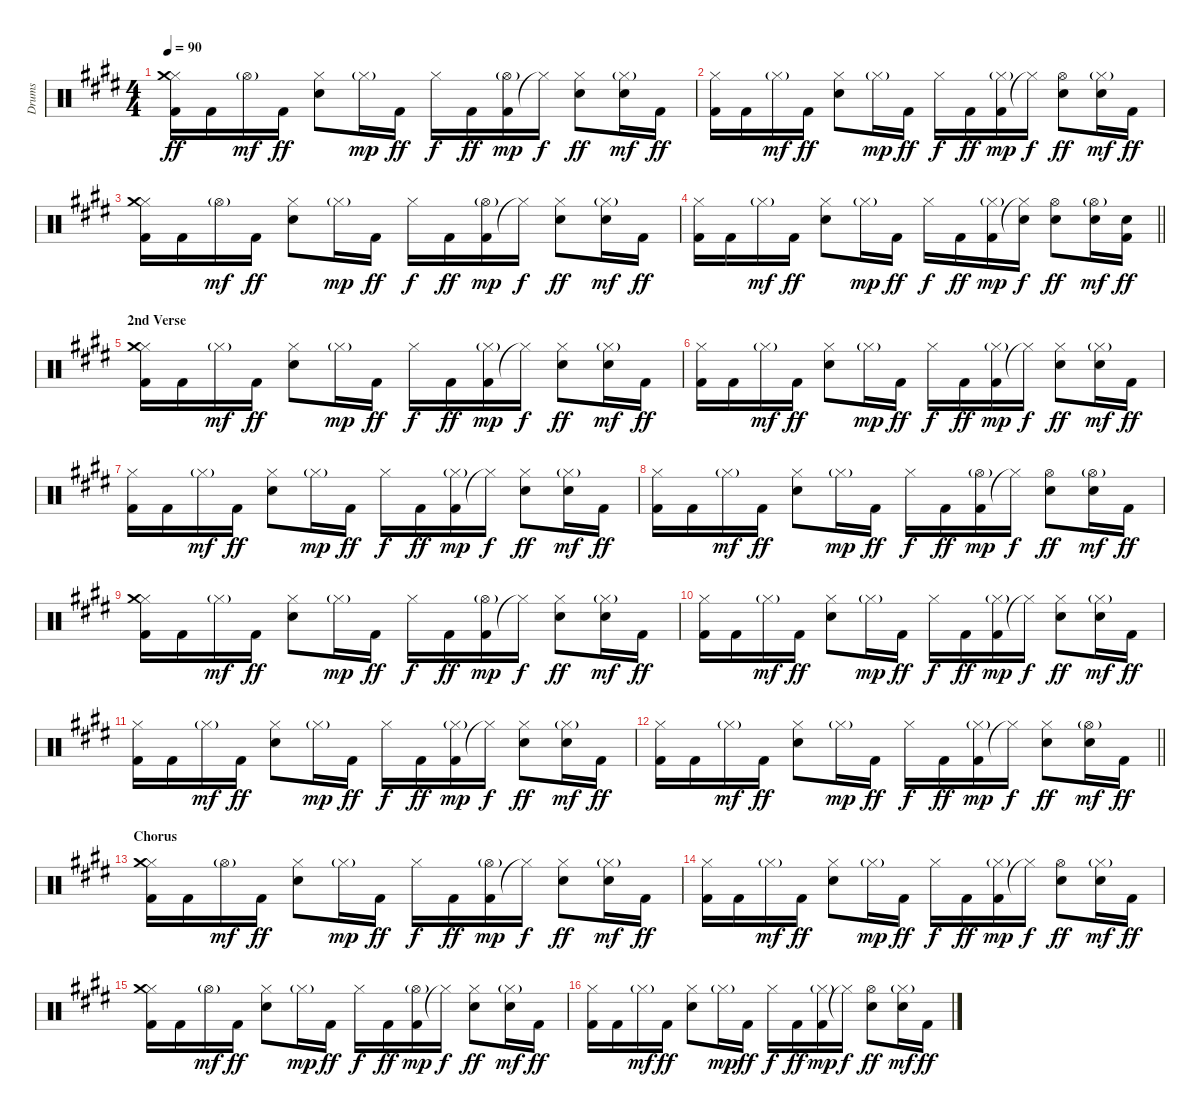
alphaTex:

\track ("Drums" "Drums") {instrument percussion}
\staff {score}
\articulation defaults
\ts (4 4)
\tempo 90
\clef neutral
\ks e
("Kick (hit) 2" "Hi-Hat (closed)" "Crash medium (hit)").16{dy ff} "Kick (hit) 2".16 "Hi-Hat (open)"{g}.16{dy mf} "Kick (hit) 2".16{dy ff} ("Snare (hit) 2" "Hi-Hat (closed)").8 "Hi-Hat (closed)"{g}.16{dy mp} "Kick (hit) 2".16{dy ff} "Hi-Hat (closed)".16{dy f} "Kick (hit) 2".16{dy ff} ("Kick (hit) 2" "Hi-Hat (open)"{g}).16{dy mp} "Hi-Hat (closed)"{t}.16{dy f} ("Snare (hit) 2" "Hi-Hat (closed)").8{dy ff} ("Snare (hit) 2" "Hi-Hat (closed)"{g}).16{dy mf} "Kick (hit) 2".16{dy ff} |
("Kick (hit) 2" "Hi-Hat (closed)").16 "Kick (hit) 2".16 "Hi-Hat (closed)"{g}.16{dy mf} "Kick (hit) 2".16{dy ff} ("Snare (hit) 2" "Hi-Hat (closed)").8 "Hi-Hat (closed)"{g}.16{dy mp} "Kick (hit) 2".16{dy ff} "Hi-Hat (closed)".16{dy f} "Kick (hit) 2".16{dy ff} ("Kick (hit) 2" "Hi-Hat (closed)"{g}).16{dy mp} "Hi-Hat (closed)"{t}.16{dy f} ("Snare (hit) 2" "Hi-Hat (open)").8{dy ff} ("Snare (hit) 2" "Hi-Hat (closed)"{g}).16{dy mf} "Kick (hit) 2".16{dy ff} |
("Kick (hit) 2" "Hi-Hat (closed)" "Crash medium (hit)").16 "Kick (hit) 2".16 "Hi-Hat (open)"{g}.16{dy mf} "Kick (hit) 2".16{dy ff} ("Snare (hit) 2" "Hi-Hat (closed)").8 "Hi-Hat (closed)"{g}.16{dy mp} "Kick (hit) 2".16{dy ff} "Hi-Hat (closed)".16{dy f} "Kick (hit) 2".16{dy ff} ("Kick (hit) 2" "Hi-Hat (open)"{g}).16{dy mp} "Hi-Hat (closed)"{t}.16{dy f} ("Snare (hit) 2" "Hi-Hat (closed)").8{dy ff} ("Snare (hit) 2" "Hi-Hat (closed)"{g}).16{dy mf} "Kick (hit) 2".16{dy ff} |
\barLineRight lightlight
("Kick (hit) 2" "Hi-Hat (closed)").16 "Kick (hit) 2".16 "Hi-Hat (closed)"{g}.16{dy mf} "Kick (hit) 2".16{dy ff} ("Snare (hit) 2" "Hi-Hat (closed)").8 "Hi-Hat (closed)"{g}.16{dy mp} "Kick (hit) 2".16{dy ff} "Hi-Hat (closed)".16{dy f} "Kick (hit) 2".16{dy ff} ("Kick (hit) 2" "Hi-Hat (closed)"{g}).16{dy mp} ("Hi-Hat (closed)"{t} "Snare (hit) 2").16{dy f} ("Snare (hit) 2" "Hi-Hat (open)").8{dy ff} ("Snare (hit) 2" "Hi-Hat (open)"{g}).16{dy mf} ("Kick (hit) 2" "Snare (hit) 2").16{dy ff} |
\section ("" "2nd Verse")
("Kick (hit) 2" "Hi-Hat (closed)" "Crash medium (hit)").16 "Kick (hit) 2".16 "Hi-Hat (closed)"{g}.16{dy mf} "Kick (hit) 2".16{dy ff} ("Snare (hit) 2" "Hi-Hat (closed)").8 "Hi-Hat (closed)"{g}.16{dy mp} "Kick (hit) 2".16{dy ff} "Hi-Hat (closed)".16{dy f} "Kick (hit) 2".16{dy ff} ("Kick (hit) 2" "Hi-Hat (closed)"{g}).16{dy mp} "Hi-Hat (closed)"{t}.16{dy f} ("Snare (hit) 2" "Hi-Hat (closed)").8{dy ff} ("Snare (hit) 2" "Hi-Hat (closed)"{g}).16{dy mf} "Kick (hit) 2".16{dy ff} |
("Kick (hit) 2" "Hi-Hat (closed)").16 "Kick (hit) 2".16 "Hi-Hat (closed)"{g}.16{dy mf} "Kick (hit) 2".16{dy ff} ("Snare (hit) 2" "Hi-Hat (closed)").8 "Hi-Hat (closed)"{g}.16{dy mp} "Kick (hit) 2".16{dy ff} "Hi-Hat (closed)".16{dy f} "Kick (hit) 2".16{dy ff} ("Kick (hit) 2" "Hi-Hat (closed)"{g}).16{dy mp} "Hi-Hat (closed)"{t}.16{dy f} ("Snare (hit) 2" "Hi-Hat (closed)").8{dy ff} ("Snare (hit) 2" "Hi-Hat (closed)"{g}).16{dy mf} "Kick (hit) 2".16{dy ff} |
("Kick (hit) 2" "Hi-Hat (closed)").16 "Kick (hit) 2".16 "Hi-Hat (closed)"{g}.16{dy mf} "Kick (hit) 2".16{dy ff} ("Snare (hit) 2" "Hi-Hat (closed)").8 "Hi-Hat (closed)"{g}.16{dy mp} "Kick (hit) 2".16{dy ff} "Hi-Hat (closed)".16{dy f} "Kick (hit) 2".16{dy ff} ("Kick (hit) 2" "Hi-Hat (closed)"{g}).16{dy mp} "Hi-Hat (closed)"{t}.16{dy f} ("Snare (hit) 2" "Hi-Hat (closed)").8{dy ff} ("Snare (hit) 2" "Hi-Hat (closed)"{g}).16{dy mf} "Kick (hit) 2".16{dy ff} |
("Kick (hit) 2" "Hi-Hat (closed)").16 "Kick (hit) 2".16 "Hi-Hat (closed)"{g}.16{dy mf} "Kick (hit) 2".16{dy ff} ("Snare (hit) 2" "Hi-Hat (closed)").8 "Hi-Hat (closed)"{g}.16{dy mp} "Kick (hit) 2".16{dy ff} "Hi-Hat (closed)".16{dy f} "Kick (hit) 2".16{dy ff} ("Kick (hit) 2" "Hi-Hat (open)"{g}).16{dy mp} "Hi-Hat (closed)"{t}.16{dy f} ("Snare (hit) 2" "Hi-Hat (open)").8{dy ff} ("Snare (hit) 2" "Hi-Hat (open)"{g}).16{dy mf} "Kick (hit) 2".16{dy ff} |
("Kick (hit) 2" "Hi-Hat (closed)" "Crash medium (hit)").16 "Kick (hit) 2".16 "Hi-Hat (closed)"{g}.16{dy mf} "Kick (hit) 2".16{dy ff} ("Snare (hit) 2" "Hi-Hat (closed)").8 "Hi-Hat (closed)"{g}.16{dy mp} "Kick (hit) 2".16{dy ff} "Hi-Hat (closed)".16{dy f} "Kick (hit) 2".16{dy ff} ("Kick (hit) 2" "Hi-Hat (open)"{g}).16{dy mp} "Hi-Hat (closed)"{t}.16{dy f} ("Snare (hit) 2" "Hi-Hat (closed)").8{dy ff} ("Snare (hit) 2" "Hi-Hat (closed)"{g}).16{dy mf} "Kick (hit) 2".16{dy ff} |
("Kick (hit) 2" "Hi-Hat (closed)").16 "Kick (hit) 2".16 "Hi-Hat (closed)"{g}.16{dy mf} "Kick (hit) 2".16{dy ff} ("Snare (hit) 2" "Hi-Hat (closed)").8 "Hi-Hat (closed)"{g}.16{dy mp} "Kick (hit) 2".16{dy ff} "Hi-Hat (closed)".16{dy f} "Kick (hit) 2".16{dy ff} ("Kick (hit) 2" "Hi-Hat (closed)"{g}).16{dy mp} "Hi-Hat (closed)"{t}.16{dy f} ("Snare (hit) 2" "Hi-Hat (closed)").8{dy ff} ("Snare (hit) 2" "Hi-Hat (closed)"{g}).16{dy mf} "Kick (hit) 2".16{dy ff} |
("Kick (hit) 2" "Hi-Hat (closed)").16 "Kick (hit) 2".16 "Hi-Hat (closed)"{g}.16{dy mf} "Kick (hit) 2".16{dy ff} ("Snare (hit) 2" "Hi-Hat (closed)").8 "Hi-Hat (closed)"{g}.16{dy mp} "Kick (hit) 2".16{dy ff} "Hi-Hat (closed)".16{dy f} "Kick (hit) 2".16{dy ff} ("Kick (hit) 2" "Hi-Hat (closed)"{g}).16{dy mp} "Hi-Hat (closed)"{t}.16{dy f} ("Snare (hit) 2" "Hi-Hat (closed)").8{dy ff} ("Snare (hit) 2" "Hi-Hat (closed)"{g}).16{dy mf} "Kick (hit) 2".16{dy ff} |
\barLineRight lightlight
("Kick (hit) 2" "Hi-Hat (closed)").16 "Kick (hit) 2".16 "Hi-Hat (closed)"{g}.16{dy mf} "Kick (hit) 2".16{dy ff} ("Snare (hit) 2" "Hi-Hat (closed)").8 "Hi-Hat (closed)"{g}.16{dy mp} "Kick (hit) 2".16{dy ff} "Hi-Hat (closed)".16{dy f} "Kick (hit) 2".16{dy ff} ("Kick (hit) 2" "Hi-Hat (closed)"{g}).16{dy mp} "Hi-Hat (closed)"{t}.16{dy f} ("Snare (hit) 2" "Hi-Hat (closed)").8{dy ff} ("Snare (hit) 2" "Hi-Hat (open)"{g}).16{dy mf} "Kick (hit) 2".16{dy ff} |
\section ("" "Chorus")
("Kick (hit) 2" "Hi-Hat (closed)" "Crash medium (hit)").16 "Kick (hit) 2".16 "Hi-Hat (open)"{g}.16{dy mf} "Kick (hit) 2".16{dy ff} ("Snare (hit) 2" "Hi-Hat (closed)").8 "Hi-Hat (closed)"{g}.16{dy mp} "Kick (hit) 2".16{dy ff} "Hi-Hat (closed)".16{dy f} "Kick (hit) 2".16{dy ff} ("Kick (hit) 2" "Hi-Hat (open)"{g}).16{dy mp} "Hi-Hat (closed)"{t}.16{dy f} ("Snare (hit) 2" "Hi-Hat (closed)").8{dy ff} ("Snare (hit) 2" "Hi-Hat (closed)"{g}).16{dy mf} "Kick (hit) 2".16{dy ff} |
("Kick (hit) 2" "Hi-Hat (closed)").16 "Kick (hit) 2".16 "Hi-Hat (closed)"{g}.16{dy mf} "Kick (hit) 2".16{dy ff} ("Snare (hit) 2" "Hi-Hat (closed)").8 "Hi-Hat (closed)"{g}.16{dy mp} "Kick (hit) 2".16{dy ff} "Hi-Hat (closed)".16{dy f} "Kick (hit) 2".16{dy ff} ("Kick (hit) 2" "Hi-Hat (closed)"{g}).16{dy mp} "Hi-Hat (closed)"{t}.16{dy f} ("Snare (hit) 2" "Hi-Hat (open)").8{dy ff} ("Snare (hit) 2" "Hi-Hat (closed)"{g}).16{dy mf} "Kick (hit) 2".16{dy ff} |
("Kick (hit) 2" "Hi-Hat (closed)" "Crash medium (hit)").16 "Kick (hit) 2".16 "Hi-Hat (open)"{g}.16{dy mf} "Kick (hit) 2".16{dy ff} ("Snare (hit) 2" "Hi-Hat (closed)").8 "Hi-Hat (closed)"{g}.16{dy mp} "Kick (hit) 2".16{dy ff} "Hi-Hat (closed)".16{dy f} "Kick (hit) 2".16{dy ff} ("Kick (hit) 2" "Hi-Hat (open)"{g}).16{dy mp} "Hi-Hat (closed)"{t}.16{dy f} ("Snare (hit) 2" "Hi-Hat (closed)").8{dy ff} ("Snare (hit) 2" "Hi-Hat (closed)"{g}).16{dy mf} "Kick (hit) 2".16{dy ff} |
("Kick (hit) 2" "Hi-Hat (closed)").16 "Kick (hit) 2".16 "Hi-Hat (closed)"{g}.16{dy mf} "Kick (hit) 2".16{dy ff} ("Snare (hit) 2" "Hi-Hat (closed)").8 "Hi-Hat (closed)"{g}.16{dy mp} "Kick (hit) 2".16{dy ff} "Hi-Hat (closed)".16{dy f} "Kick (hit) 2".16{dy ff} ("Kick (hit) 2" "Hi-Hat (closed)"{g}).16{dy mp} "Hi-Hat (closed)"{t}.16{dy f} ("Snare (hit) 2" "Hi-Hat (open)").8{dy ff} ("Snare (hit) 2" "Hi-Hat (closed)"{g}).16{dy mf} "Kick (hit) 2".16{dy ff}
